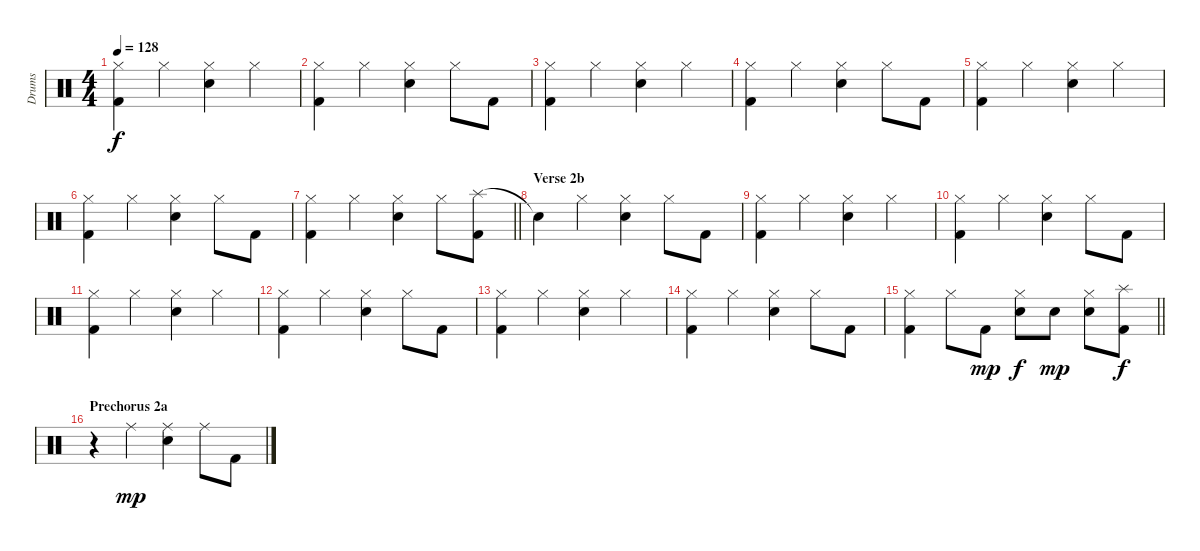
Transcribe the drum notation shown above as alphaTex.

\track ("Drums" "Drums") {instrument percussion}
\staff {score}
\articulation defaults
\ts (4 4)
\tempo 128
\clef neutral
\ks c
("Hi-Hat (closed)" "Kick (hit) 2").4{dy f} "Hi-Hat (closed)".4 ("Hi-Hat (closed)" "Snare (hit) 2").4 "Hi-Hat (closed)".4 |
("Hi-Hat (closed)" "Kick (hit) 2").4 "Hi-Hat (closed)".4 ("Hi-Hat (closed)" "Snare (hit) 2").4 "Hi-Hat (closed)".8 "Kick (hit) 2".8 |
("Hi-Hat (closed)" "Kick (hit) 2").4 "Hi-Hat (closed)".4 ("Hi-Hat (closed)" "Snare (hit) 2").4 "Hi-Hat (closed)".4 |
("Hi-Hat (closed)" "Kick (hit) 2").4 "Hi-Hat (closed)".4 ("Hi-Hat (closed)" "Snare (hit) 2").4 "Hi-Hat (closed)".8 "Kick (hit) 2".8 |
("Hi-Hat (closed)" "Kick (hit) 2").4 "Hi-Hat (closed)".4 ("Hi-Hat (closed)" "Snare (hit) 2").4 "Hi-Hat (closed)".4 |
("Hi-Hat (closed)" "Kick (hit) 2").4 "Hi-Hat (closed)".4 ("Hi-Hat (closed)" "Snare (hit) 2").4 "Hi-Hat (closed)".8 "Kick (hit) 2".8 |
\barLineRight lightlight
("Hi-Hat (closed)" "Kick (hit) 2").4 "Hi-Hat (closed)".4 ("Hi-Hat (closed)" "Snare (hit) 2").4 "Hi-Hat (closed)".8 ("Splash (hit)" "Kick (hit) 2").8 |
\section ("" "Verse 2b")
"Snare (hit)"{t}.4 "Hi-Hat (closed)".4 ("Hi-Hat (closed)" "Snare (hit) 2").4 "Hi-Hat (closed)".8 "Kick (hit) 2".8 |
("Hi-Hat (closed)" "Kick (hit) 2").4 "Hi-Hat (closed)".4 ("Hi-Hat (closed)" "Snare (hit) 2").4 "Hi-Hat (closed)".4 |
("Hi-Hat (closed)" "Kick (hit) 2").4 "Hi-Hat (closed)".4 ("Hi-Hat (closed)" "Snare (hit) 2").4 "Hi-Hat (closed)".8 "Kick (hit) 2".8 |
("Hi-Hat (closed)" "Kick (hit) 2").4 "Hi-Hat (closed)".4 ("Hi-Hat (closed)" "Snare (hit) 2").4 "Hi-Hat (closed)".4 |
("Hi-Hat (closed)" "Kick (hit) 2").4 "Hi-Hat (closed)".4 ("Hi-Hat (closed)" "Snare (hit) 2").4 "Hi-Hat (closed)".8 "Kick (hit) 2".8 |
("Hi-Hat (closed)" "Kick (hit) 2").4 "Hi-Hat (closed)".4 ("Hi-Hat (closed)" "Snare (hit) 2").4 "Hi-Hat (closed)".4 |
("Hi-Hat (closed)" "Kick (hit) 2").4 "Hi-Hat (closed)".4 ("Hi-Hat (closed)" "Snare (hit) 2").4 "Hi-Hat (closed)".8 "Kick (hit) 2".8 |
\barLineRight lightlight
("Hi-Hat (closed)" "Kick (hit) 2").4 "Hi-Hat (closed)".8 "Kick (hit) 2".8{dy mp} ("Hi-Hat (closed)" "Snare (hit) 2").8{dy f} "Snare (hit) 2".8{dy mp} ("Hi-Hat (closed)" "Snare (hit) 2").8 ("Splash (hit)" "Kick (hit) 2").8{dy f} |
\section ("" "Prechorus 2a")
r.4 "Ride (middle)".4{dy mp} ("Ride (middle)" "Snare (hit) 2").4 "Ride (middle)".8 "Kick (hit) 2".8
